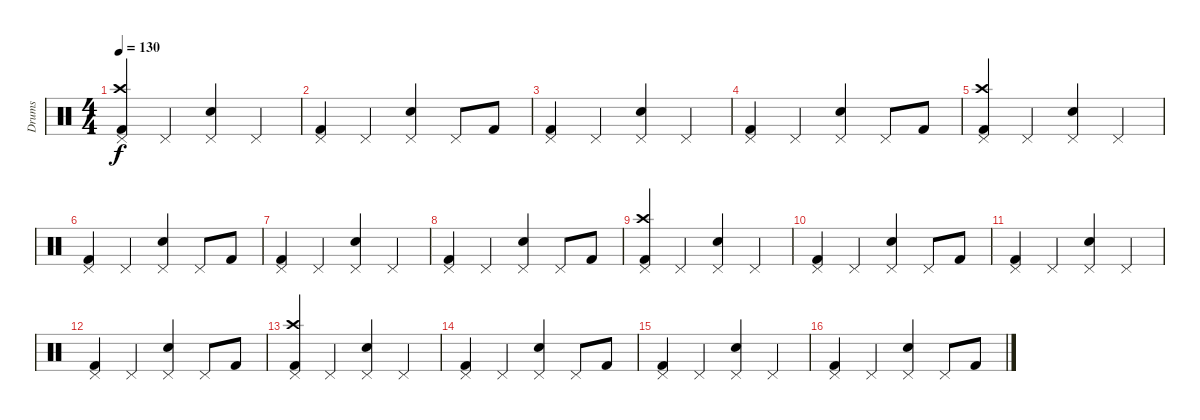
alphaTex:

\track ("Drums" "Drums") {instrument percussion}
\staff {score}
\articulation defaults
\ts (4 4)
\tempo 130
\clef neutral
\ks c
("Pedal Hi-Hat (hit)" "Crash high (hit)" "Kick (hit) 2").4{dy f} "Pedal Hi-Hat (hit)".4 ("Pedal Hi-Hat (hit)" "Snare (hit) 2").4 "Pedal Hi-Hat (hit)".4 |
("Pedal Hi-Hat (hit)" "Kick (hit) 2").4 "Pedal Hi-Hat (hit)".4 ("Pedal Hi-Hat (hit)" "Snare (hit) 2").4 "Pedal Hi-Hat (hit)".8 "Kick (hit) 2".8 |
("Pedal Hi-Hat (hit)" "Kick (hit) 2").4 "Pedal Hi-Hat (hit)".4 ("Pedal Hi-Hat (hit)" "Snare (hit) 2").4 "Pedal Hi-Hat (hit)".4 |
("Pedal Hi-Hat (hit)" "Kick (hit) 2").4 "Pedal Hi-Hat (hit)".4 ("Pedal Hi-Hat (hit)" "Snare (hit) 2").4 "Pedal Hi-Hat (hit)".8 "Kick (hit) 2".8 |
("Pedal Hi-Hat (hit)" "Crash high (hit)" "Kick (hit) 2").4 "Pedal Hi-Hat (hit)".4 ("Pedal Hi-Hat (hit)" "Snare (hit) 2").4 "Pedal Hi-Hat (hit)".4 |
("Pedal Hi-Hat (hit)" "Kick (hit) 2").4 "Pedal Hi-Hat (hit)".4 ("Pedal Hi-Hat (hit)" "Snare (hit) 2").4 "Pedal Hi-Hat (hit)".8 "Kick (hit) 2".8 |
("Pedal Hi-Hat (hit)" "Kick (hit) 2").4 "Pedal Hi-Hat (hit)".4 ("Pedal Hi-Hat (hit)" "Snare (hit) 2").4 "Pedal Hi-Hat (hit)".4 |
("Pedal Hi-Hat (hit)" "Kick (hit) 2").4 "Pedal Hi-Hat (hit)".4 ("Pedal Hi-Hat (hit)" "Snare (hit) 2").4 "Pedal Hi-Hat (hit)".8 "Kick (hit) 2".8 |
("Pedal Hi-Hat (hit)" "Crash high (hit)" "Kick (hit) 2").4 "Pedal Hi-Hat (hit)".4 ("Pedal Hi-Hat (hit)" "Snare (hit) 2").4 "Pedal Hi-Hat (hit)".4 |
("Pedal Hi-Hat (hit)" "Kick (hit) 2").4 "Pedal Hi-Hat (hit)".4 ("Pedal Hi-Hat (hit)" "Snare (hit) 2").4 "Pedal Hi-Hat (hit)".8 "Kick (hit) 2".8 |
("Pedal Hi-Hat (hit)" "Kick (hit) 2").4 "Pedal Hi-Hat (hit)".4 ("Pedal Hi-Hat (hit)" "Snare (hit) 2").4 "Pedal Hi-Hat (hit)".4 |
("Pedal Hi-Hat (hit)" "Kick (hit) 2").4 "Pedal Hi-Hat (hit)".4 ("Pedal Hi-Hat (hit)" "Snare (hit) 2").4 "Pedal Hi-Hat (hit)".8 "Kick (hit) 2".8 |
("Pedal Hi-Hat (hit)" "Crash high (hit)" "Kick (hit) 2").4 "Pedal Hi-Hat (hit)".4 ("Pedal Hi-Hat (hit)" "Snare (hit) 2").4 "Pedal Hi-Hat (hit)".4 |
("Pedal Hi-Hat (hit)" "Kick (hit) 2").4 "Pedal Hi-Hat (hit)".4 ("Pedal Hi-Hat (hit)" "Snare (hit) 2").4 "Pedal Hi-Hat (hit)".8 "Kick (hit) 2".8 |
("Pedal Hi-Hat (hit)" "Kick (hit) 2").4 "Pedal Hi-Hat (hit)".4 ("Pedal Hi-Hat (hit)" "Snare (hit) 2").4 "Pedal Hi-Hat (hit)".4 |
("Pedal Hi-Hat (hit)" "Kick (hit) 2").4 "Pedal Hi-Hat (hit)".4 ("Pedal Hi-Hat (hit)" "Snare (hit) 2").4 "Pedal Hi-Hat (hit)".8 "Kick (hit) 2".8
